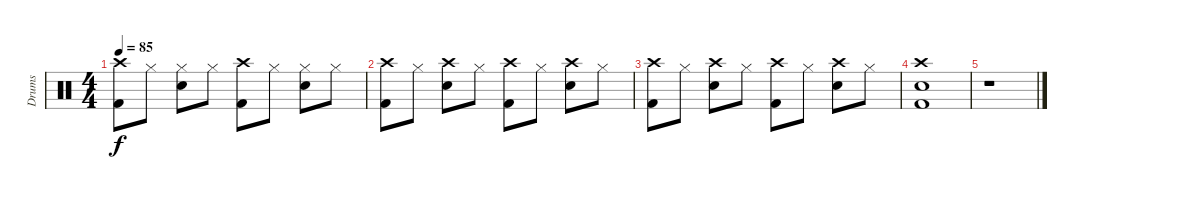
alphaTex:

\track ("Drums" "Drums") {instrument percussion}
\staff {score}
\articulation defaults
\ts (4 4)
\tempo 85
\clef neutral
\ks c
("Crash high (hit)" "Kick (hit) 2").8{dy f} "Hi-Hat (closed)".8 ("Hi-Hat (closed)" "Snare (hit) 2").8 "Hi-Hat (closed)".8 ("Crash high (hit)" "Kick (hit) 2").8 "Hi-Hat (closed)".8 ("Hi-Hat (closed)" "Snare (hit) 2").8 "Hi-Hat (closed)".8 |
("Crash high (hit)" "Kick (hit) 2").8 "Hi-Hat (closed)".8 ("Crash high (hit)" "Snare (hit) 2").8 "Hi-Hat (closed)".8 ("Crash high (hit)" "Kick (hit) 2").8 "Hi-Hat (closed)".8 ("Crash high (hit)" "Snare (hit) 2").8 "Hi-Hat (closed)".8 |
("Crash high (hit)" "Kick (hit) 2").8 "Hi-Hat (closed)".8 ("Crash high (hit)" "Snare (hit) 2").8 "Hi-Hat (closed)".8 ("Crash high (hit)" "Kick (hit) 2").8 "Hi-Hat (closed)".8 ("Crash high (hit)" "Snare (hit) 2").8 "Hi-Hat (closed)".8 |
("Crash high (hit)" "Snare (hit) 2" "Kick (hit) 2").1 |
r.1
